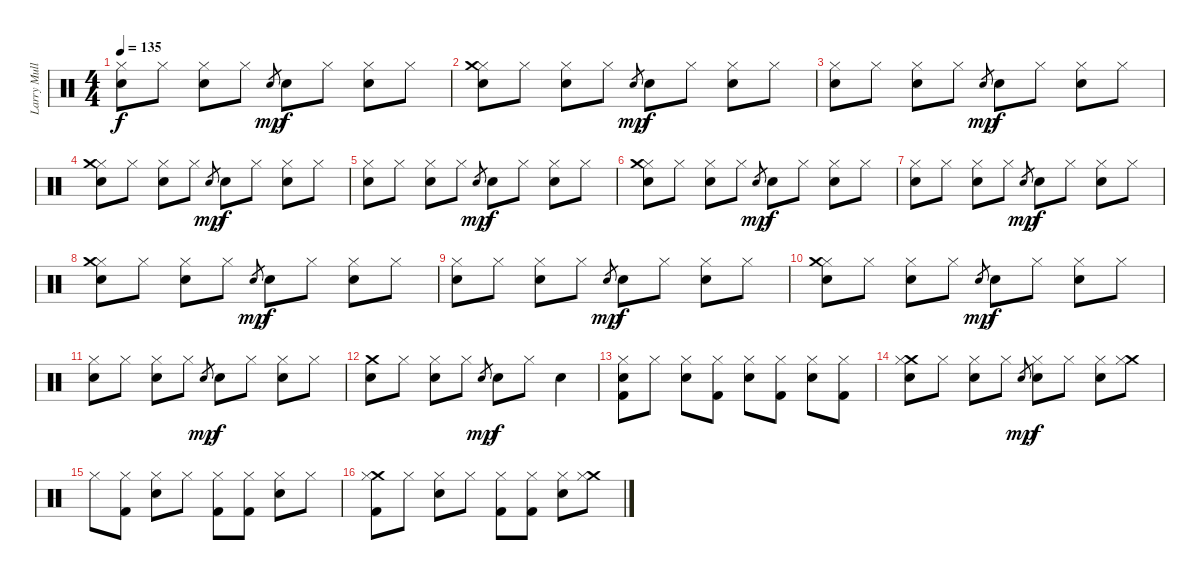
\track ("Larry Mullen Jr." "Larry Mull") {instrument percussion}
\staff {score}
\articulation defaults
\ts (4 4)
\tempo 135
\clef neutral
\ks c
("Electric Snare (hit)" "Hi-Hat (closed)").8{dy f} "Hi-Hat (closed)".8 ("Electric Snare (hit)" "Hi-Hat (closed)").8 "Hi-Hat (closed)".8 "Electric Snare (hit)".8{gr dy mp} "Electric Snare (hit)".8{dy f} "Hi-Hat (closed)".8 ("Electric Snare (hit)" "Hi-Hat (closed)").8 "Hi-Hat (closed)".8 |
("Electric Snare (hit)" "Hi-Hat (closed)" "Crash medium (hit)").8 "Hi-Hat (closed)".8 ("Electric Snare (hit)" "Hi-Hat (closed)").8 "Hi-Hat (closed)".8 "Electric Snare (hit)".8{gr dy mp} "Electric Snare (hit)".8{dy f} "Hi-Hat (closed)".8 ("Electric Snare (hit)" "Hi-Hat (closed)").8 "Hi-Hat (closed)".8 |
("Electric Snare (hit)" "Hi-Hat (closed)").8 "Hi-Hat (closed)".8 ("Electric Snare (hit)" "Hi-Hat (closed)").8 "Hi-Hat (closed)".8 "Electric Snare (hit)".8{gr dy mp} "Electric Snare (hit)".8{dy f} "Hi-Hat (closed)".8 ("Electric Snare (hit)" "Hi-Hat (closed)").8 "Hi-Hat (closed)".8 |
("Electric Snare (hit)" "Hi-Hat (closed)" "Crash medium (hit)").8 "Hi-Hat (closed)".8 ("Electric Snare (hit)" "Hi-Hat (closed)").8 "Hi-Hat (closed)".8 "Electric Snare (hit)".8{gr dy mp} "Electric Snare (hit)".8{dy f} "Hi-Hat (closed)".8 ("Electric Snare (hit)" "Hi-Hat (closed)").8 "Hi-Hat (closed)".8 |
("Electric Snare (hit)" "Hi-Hat (closed)").8 "Hi-Hat (closed)".8 ("Electric Snare (hit)" "Hi-Hat (closed)").8 "Hi-Hat (closed)".8 "Electric Snare (hit)".8{gr dy mp} "Electric Snare (hit)".8{dy f} "Hi-Hat (closed)".8 ("Electric Snare (hit)" "Hi-Hat (closed)").8 "Hi-Hat (closed)".8 |
("Electric Snare (hit)" "Hi-Hat (closed)" "Crash medium (hit)").8 "Hi-Hat (closed)".8 ("Electric Snare (hit)" "Hi-Hat (closed)").8 "Hi-Hat (closed)".8 "Electric Snare (hit)".8{gr dy mp} "Electric Snare (hit)".8{dy f} "Hi-Hat (closed)".8 ("Electric Snare (hit)" "Hi-Hat (closed)").8 "Hi-Hat (closed)".8 |
("Electric Snare (hit)" "Hi-Hat (closed)").8 "Hi-Hat (closed)".8 ("Electric Snare (hit)" "Hi-Hat (closed)").8 "Hi-Hat (closed)".8 "Electric Snare (hit)".8{gr dy mp} "Electric Snare (hit)".8{dy f} "Hi-Hat (closed)".8 ("Electric Snare (hit)" "Hi-Hat (closed)").8 "Hi-Hat (closed)".8 |
("Electric Snare (hit)" "Hi-Hat (closed)" "Crash medium (hit)").8 "Hi-Hat (closed)".8 ("Electric Snare (hit)" "Hi-Hat (closed)").8 "Hi-Hat (closed)".8 "Electric Snare (hit)".8{gr dy mp} "Electric Snare (hit)".8{dy f} "Hi-Hat (closed)".8 ("Electric Snare (hit)" "Hi-Hat (closed)").8 "Hi-Hat (closed)".8 |
("Electric Snare (hit)" "Hi-Hat (closed)").8 "Hi-Hat (closed)".8 ("Electric Snare (hit)" "Hi-Hat (closed)").8 "Hi-Hat (closed)".8 "Electric Snare (hit)".8{gr dy mp} "Electric Snare (hit)".8{dy f} "Hi-Hat (closed)".8 ("Electric Snare (hit)" "Hi-Hat (closed)").8 "Hi-Hat (closed)".8 |
("Electric Snare (hit)" "Hi-Hat (closed)" "Crash medium (hit)").8 "Hi-Hat (closed)".8 ("Electric Snare (hit)" "Hi-Hat (closed)").8 "Hi-Hat (closed)".8 "Electric Snare (hit)".8{gr dy mp} "Electric Snare (hit)".8{dy f} "Hi-Hat (closed)".8 ("Electric Snare (hit)" "Hi-Hat (closed)").8 "Hi-Hat (closed)".8 |
("Electric Snare (hit)" "Hi-Hat (closed)").8 "Hi-Hat (closed)".8 ("Electric Snare (hit)" "Hi-Hat (closed)").8 "Hi-Hat (closed)".8 "Electric Snare (hit)".8{gr dy mp} "Electric Snare (hit)".8{dy f} "Hi-Hat (closed)".8 ("Electric Snare (hit)" "Hi-Hat (closed)").8 "Hi-Hat (closed)".8 |
("Electric Snare (hit)" "Crash medium (hit)").8 "Hi-Hat (closed)".8 ("Electric Snare (hit)" "Hi-Hat (closed)").8 "Hi-Hat (closed)".8 "Electric Snare (hit)".8{gr dy mp} "Electric Snare (hit)".8{dy f} "Hi-Hat (closed)".8 "Electric Snare (hit)".4 |
("Electric Snare (hit)" "Kick (hit) 2" "Hi-Hat (closed)").8 "Hi-Hat (closed)".8 ("Electric Snare (hit)" "Hi-Hat (closed)").8 ("Kick (hit) 2" "Hi-Hat (closed)").8 ("Electric Snare (hit)" "Hi-Hat (closed)").8 ("Kick (hit) 2" "Hi-Hat (closed)").8 ("Electric Snare (hit)" "Hi-Hat (closed)").8 ("Kick (hit) 2" "Hi-Hat (closed)").8 |
("Electric Snare (hit)" "Crash medium (hit)" "Hi-Hat (closed)").8 "Hi-Hat (closed)".8 ("Electric Snare (hit)" "Hi-Hat (closed)").8 "Hi-Hat (closed)".8 "Electric Snare (hit)".8{gr dy mp} ("Electric Snare (hit)" "Hi-Hat (closed)").8{dy f} "Hi-Hat (closed)".8 ("Electric Snare (hit)" "Hi-Hat (closed)").8 ("Crash medium (hit)" "Hi-Hat (closed)").8 |
"Hi-Hat (closed)".8 ("Kick (hit) 2" "Hi-Hat (closed)").8 ("Electric Snare (hit)" "Hi-Hat (closed)").8 "Hi-Hat (closed)".8 ("Kick (hit) 2" "Hi-Hat (closed)").8 ("Kick (hit) 2" "Hi-Hat (closed)").8 ("Electric Snare (hit)" "Hi-Hat (closed)").8 "Hi-Hat (closed)".8 |
("Kick (hit) 2" "Crash medium (hit)" "Hi-Hat (closed)").8 "Hi-Hat (closed)".8 ("Electric Snare (hit)" "Hi-Hat (closed)").8 "Hi-Hat (closed)".8 ("Kick (hit) 2" "Hi-Hat (closed)").8 ("Kick (hit) 2" "Hi-Hat (closed)").8 ("Electric Snare (hit)" "Hi-Hat (closed)").8 ("Crash medium (hit)" "Hi-Hat (closed)").8
